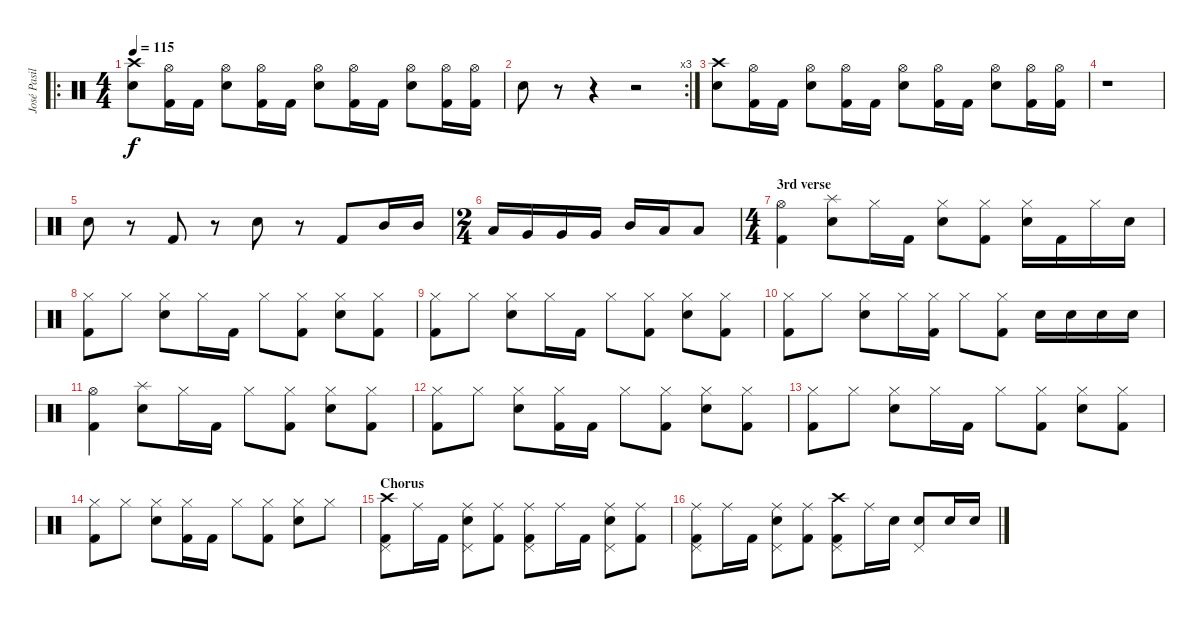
\track ("José Pasillas" "José Pasil") {instrument percussion}
\staff {score}
\articulation defaults
\ro
\ts (4 4)
\tempo 115
\clef neutral
\ks c
("Crash high (hit)" "Electric Snare (hit)").8{dy f} ("Hi-Hat (open)" "Kick (hit) 2").16 "Kick (hit) 2".16 ("Hi-Hat (open)" "Electric Snare (hit)").8 ("Hi-Hat (open)" "Kick (hit) 2").16 "Kick (hit) 2".16 ("Hi-Hat (open)" "Electric Snare (hit)").8 ("Hi-Hat (open)" "Kick (hit) 2").16 "Kick (hit) 2".16 ("Hi-Hat (open)" "Electric Snare (hit)").8 ("Hi-Hat (open)" "Kick (hit) 2").16 ("Hi-Hat (open)" "Kick (hit) 2").16 |
\rc 3 "Electric Snare (hit)".8
r.8 r.4 r.2 |
("Crash high (hit)" "Electric Snare (hit)").8 ("Hi-Hat (open)" "Kick (hit) 2").16 "Kick (hit) 2".16 ("Hi-Hat (open)" "Electric Snare (hit)").8 ("Hi-Hat (open)" "Kick (hit) 2").16 "Kick (hit) 2".16 ("Hi-Hat (open)" "Electric Snare (hit)").8 ("Hi-Hat (open)" "Kick (hit) 2").16 "Kick (hit) 2".16 ("Hi-Hat (open)" "Electric Snare (hit)").8 ("Hi-Hat (open)" "Kick (hit) 2").16 ("Hi-Hat (open)" "Kick (hit) 2").16 |
r.1 |
"Electric Snare (hit)".8 r.8 "Kick (hit) 2".8 r.8 "Electric Snare (hit)".8 r.8 "Kick (hit) 2".8 "Mid Tom (hit)".16 "Mid Tom (hit)".16 |
\ts (2 4)
"Low Tom (hit)".16 "Very Low Tom (hit)".16 "Very Low Tom (hit)".16 "Very Low Tom (hit)".16 "Mid Tom (hit)".16 "Low Floor Tom (hit)".16 "Low Floor Tom (hit)".8 |
\ts (4 4)
\section ("" "3rd verse")
("Hi-Hat (open)" "Kick (hit) 2").4 ("Splash (hit)" "Electric Snare (hit)").8 "Hi-Hat (closed)".16 "Kick (hit) 2".16 ("Hi-Hat (closed)" "Electric Snare (hit)").8 ("Hi-Hat (closed)" "Kick (hit) 2").8 ("Hi-Hat (closed)" "Electric Snare (hit)").16 "Kick (hit) 2".16 "Hi-Hat (closed)".16 "Electric Snare (hit)".16 |
("Hi-Hat (closed)" "Kick (hit) 2").8 "Hi-Hat (closed)".8 ("Hi-Hat (closed)" "Electric Snare (hit)").8 "Hi-Hat (closed)".16 "Kick (hit) 2".16 "Hi-Hat (closed)".8 ("Hi-Hat (closed)" "Kick (hit) 2").8 ("Hi-Hat (closed)" "Electric Snare (hit)").8 ("Hi-Hat (closed)" "Kick (hit) 2").8 |
("Hi-Hat (closed)" "Kick (hit) 2").8 "Hi-Hat (closed)".8 ("Hi-Hat (closed)" "Electric Snare (hit)").8 "Hi-Hat (closed)".16 "Kick (hit) 2".16 "Hi-Hat (closed)".8 ("Hi-Hat (closed)" "Kick (hit) 2").8 ("Hi-Hat (closed)" "Electric Snare (hit)").8 ("Hi-Hat (closed)" "Kick (hit) 2").8 |
("Hi-Hat (closed)" "Kick (hit) 2").8 "Hi-Hat (closed)".8 ("Hi-Hat (closed)" "Electric Snare (hit)").8 "Hi-Hat (closed)".16 ("Hi-Hat (closed)" "Kick (hit) 2").16 "Hi-Hat (closed)".8 ("Hi-Hat (closed)" "Kick (hit) 2").8 "Electric Snare (hit)".16 "Electric Snare (hit)".16 "Electric Snare (hit)".16 "Electric Snare (hit)".16 |
("Hi-Hat (open)" "Kick (hit) 2").4 ("Splash (hit)" "Electric Snare (hit)").8 "Hi-Hat (closed)".16 "Kick (hit) 2".16 "Hi-Hat (closed)".8 ("Hi-Hat (closed)" "Kick (hit) 2").8 ("Hi-Hat (closed)" "Electric Snare (hit)").8 ("Hi-Hat (closed)" "Kick (hit) 2").8 |
("Hi-Hat (closed)" "Kick (hit) 2").8 "Hi-Hat (closed)".8 ("Hi-Hat (closed)" "Electric Snare (hit)").8 ("Hi-Hat (closed)" "Kick (hit) 2").16 "Kick (hit) 2".16 "Hi-Hat (closed)".8 ("Hi-Hat (closed)" "Kick (hit) 2").8 ("Hi-Hat (closed)" "Electric Snare (hit)").8 ("Hi-Hat (closed)" "Kick (hit) 2").8 |
("Hi-Hat (closed)" "Kick (hit) 2").8 "Hi-Hat (closed)".8 ("Hi-Hat (closed)" "Electric Snare (hit)").8 "Hi-Hat (closed)".16 "Kick (hit) 2".16 "Hi-Hat (closed)".8 ("Hi-Hat (closed)" "Kick (hit) 2").8 ("Hi-Hat (closed)" "Electric Snare (hit)").8 ("Hi-Hat (closed)" "Kick (hit) 2").8 |
("Hi-Hat (closed)" "Kick (hit) 2").8 "Hi-Hat (closed)".8 ("Hi-Hat (closed)" "Electric Snare (hit)").8 ("Hi-Hat (closed)" "Kick (hit) 2").16 "Kick (hit) 2".16 "Hi-Hat (closed)".8 ("Hi-Hat (closed)" "Kick (hit) 2").8 ("Hi-Hat (closed)" "Electric Snare (hit)").8 "Hi-Hat (closed)".8 |
\section ("" "Chorus")
("Pedal Hi-Hat (hit)" "Crash high (hit)" "Kick (hit) 2").8 "Ride (middle)".16 "Kick (hit) 2".16 ("Pedal Hi-Hat (hit)" "Ride (middle)" "Electric Snare (hit)").8 ("Ride (middle)" "Kick (hit) 2").8 ("Pedal Hi-Hat (hit)" "Ride (middle)" "Kick (hit) 2").8 "Ride (middle)".16 "Kick (hit) 2".16 ("Pedal Hi-Hat (hit)" "Ride (middle)" "Electric Snare (hit)").8 ("Ride (middle)" "Kick (hit) 2").8 |
("Pedal Hi-Hat (hit)" "Ride (middle)" "Kick (hit) 2").8 "Ride (middle)".16 "Kick (hit) 2".16 ("Pedal Hi-Hat (hit)" "Ride (middle)" "Electric Snare (hit)").8 ("Ride (middle)" "Kick (hit) 2").8 ("Pedal Hi-Hat (hit)" "Crash high (hit)" "Kick (hit) 2").8 "Ride (middle)".16 "Electric Snare (hit)".16 ("Pedal Hi-Hat (hit)" "Electric Snare (hit)").8 "Electric Snare (hit)".16 "Electric Snare (hit)".16
